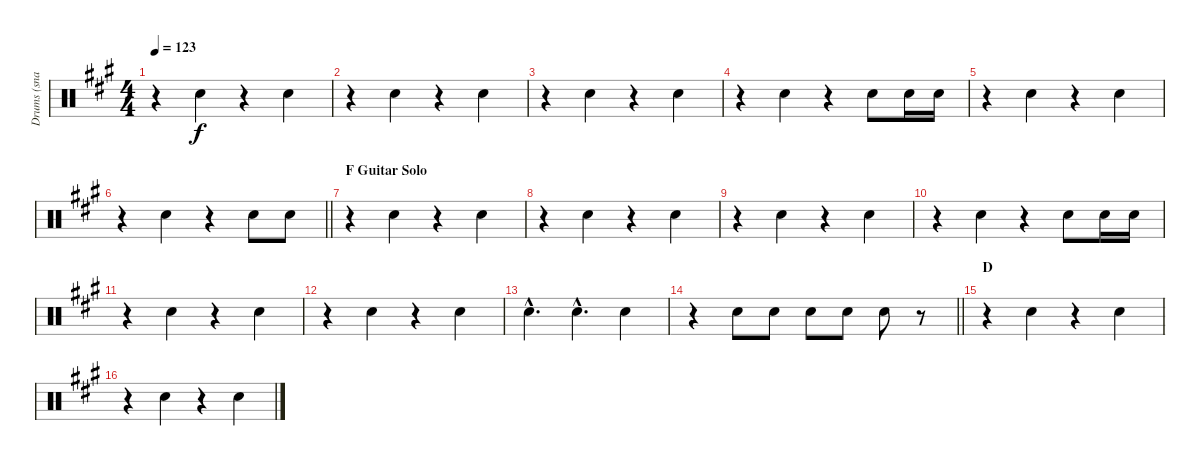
\track ("Drums (snare)" "Drums (sna") {instrument percussion}
\staff {score}
\articulation defaults
\ts (4 4)
\tempo 123
\clef neutral
\ks a
r.4{dy f} "Snare (hit) 2".4 r.4 "Snare (hit) 2".4 |
r.4 "Snare (hit) 2".4 r.4 "Snare (hit) 2".4 |
r.4 "Snare (hit) 2".4 r.4 "Snare (hit) 2".4 |
r.4 "Snare (hit) 2".4 r.4 "Snare (hit) 2".8 "Snare (hit) 2".16 "Snare (hit) 2".16 |
r.4 "Snare (hit) 2".4 r.4 "Snare (hit) 2".4 |
\barLineRight lightlight
r.4 "Snare (hit) 2".4 r.4 "Snare (hit) 2".8 "Snare (hit) 2".8 |
\section ("" "F Guitar Solo")
r.4 "Snare (hit) 2".4 r.4 "Snare (hit) 2".4 |
r.4 "Snare (hit) 2".4 r.4 "Snare (hit) 2".4 |
r.4 "Snare (hit) 2".4 r.4 "Snare (hit) 2".4 |
r.4 "Snare (hit) 2".4 r.4 "Snare (hit) 2".8 "Snare (hit) 2".16 "Snare (hit) 2".16 |
r.4 "Snare (hit) 2".4 r.4 "Snare (hit) 2".4 |
r.4 "Snare (hit) 2".4 r.4 "Snare (hit) 2".4 |
"Snare (hit) 2"{hac}.4{d} "Snare (hit) 2"{hac}.4{d} "Snare (hit) 2".4 |
\barLineRight lightlight
r.4 "Snare (hit) 2".8 "Snare (hit) 2".8 "Snare (hit) 2".8 "Snare (hit) 2".8 "Snare (hit) 2".8 r.8 |
\section ("" "D")
r.4 "Snare (hit) 2".4 r.4 "Snare (hit) 2".4 |
r.4 "Snare (hit) 2".4 r.4 "Snare (hit) 2".4
